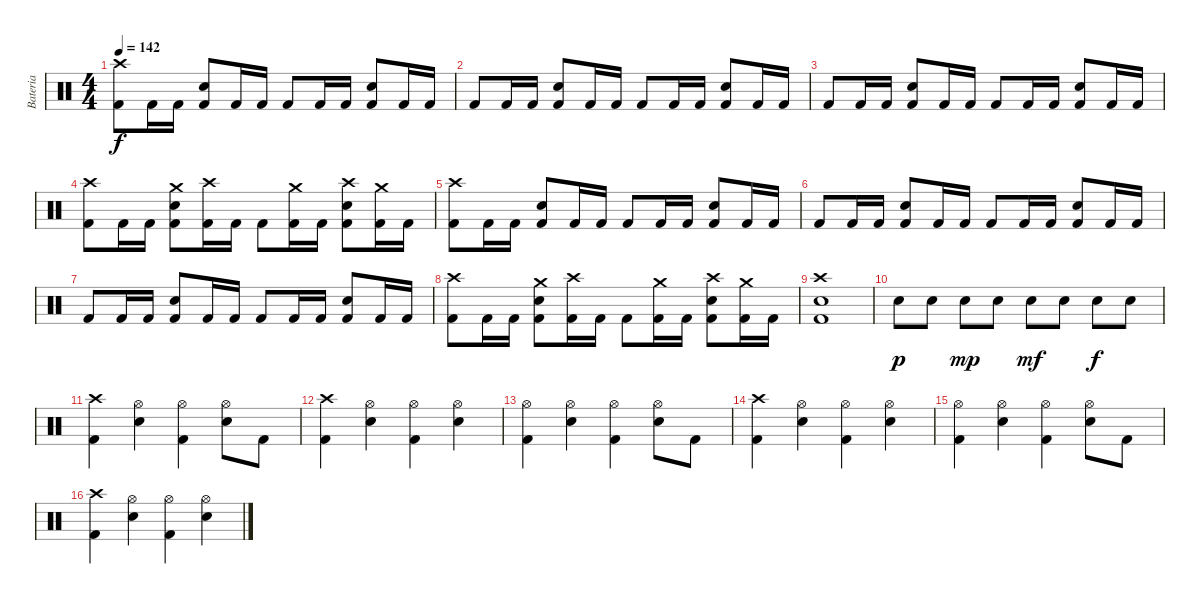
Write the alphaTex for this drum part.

\track ("Bateria" "Bateria") {instrument percussion}
\staff {score}
\articulation defaults
\ts (4 4)
\tempo 142
\clef neutral
\ks c
("Crash high (hit)" "Kick (hit) 2").8{dy f} "Kick (hit) 2".16 "Kick (hit) 2".16 ("Electric Snare (hit)" "Kick (hit) 2").8 "Kick (hit) 2".16 "Kick (hit) 2".16 "Kick (hit) 2".8 "Kick (hit) 2".16 "Kick (hit) 2".16 ("Electric Snare (hit)" "Kick (hit) 2").8 "Kick (hit) 2".16 "Kick (hit) 2".16 |
"Kick (hit) 2".8 "Kick (hit) 2".16 "Kick (hit) 2".16 ("Electric Snare (hit)" "Kick (hit) 2").8 "Kick (hit) 2".16 "Kick (hit) 2".16 "Kick (hit) 2".8 "Kick (hit) 2".16 "Kick (hit) 2".16 ("Electric Snare (hit)" "Kick (hit) 2").8 "Kick (hit) 2".16 "Kick (hit) 2".16 |
"Kick (hit) 2".8 "Kick (hit) 2".16 "Kick (hit) 2".16 ("Electric Snare (hit)" "Kick (hit) 2").8 "Kick (hit) 2".16 "Kick (hit) 2".16 "Kick (hit) 2".8 "Kick (hit) 2".16 "Kick (hit) 2".16 ("Electric Snare (hit)" "Kick (hit) 2").8 "Kick (hit) 2".16 "Kick (hit) 2".16 |
("Crash high (hit)" "Kick (hit) 2").8 "Kick (hit) 2".16 "Kick (hit) 2".16 ("Electric Snare (hit)" "Kick (hit) 2" "Crash medium (hit)").8 ("Kick (hit) 2" "Crash high (hit)").16 "Kick (hit) 2".16 "Kick (hit) 2".8 ("Kick (hit) 2" "Crash medium (hit)").16 "Kick (hit) 2".16 ("Electric Snare (hit)" "Kick (hit) 2" "Crash high (hit)").8 ("Kick (hit) 2" "Crash medium (hit)").16 "Kick (hit) 2".16 |
("Crash high (hit)" "Kick (hit) 2").8 "Kick (hit) 2".16 "Kick (hit) 2".16 ("Electric Snare (hit)" "Kick (hit) 2").8 "Kick (hit) 2".16 "Kick (hit) 2".16 "Kick (hit) 2".8 "Kick (hit) 2".16 "Kick (hit) 2".16 ("Electric Snare (hit)" "Kick (hit) 2").8 "Kick (hit) 2".16 "Kick (hit) 2".16 |
"Kick (hit) 2".8 "Kick (hit) 2".16 "Kick (hit) 2".16 ("Electric Snare (hit)" "Kick (hit) 2").8 "Kick (hit) 2".16 "Kick (hit) 2".16 "Kick (hit) 2".8 "Kick (hit) 2".16 "Kick (hit) 2".16 ("Electric Snare (hit)" "Kick (hit) 2").8 "Kick (hit) 2".16 "Kick (hit) 2".16 |
"Kick (hit) 2".8 "Kick (hit) 2".16 "Kick (hit) 2".16 ("Electric Snare (hit)" "Kick (hit) 2").8 "Kick (hit) 2".16 "Kick (hit) 2".16 "Kick (hit) 2".8 "Kick (hit) 2".16 "Kick (hit) 2".16 ("Electric Snare (hit)" "Kick (hit) 2").8 "Kick (hit) 2".16 "Kick (hit) 2".16 |
("Crash high (hit)" "Kick (hit) 2").8 "Kick (hit) 2".16 "Kick (hit) 2".16 ("Electric Snare (hit)" "Kick (hit) 2" "Crash medium (hit)").8 ("Kick (hit) 2" "Crash high (hit)").16 "Kick (hit) 2".16 "Kick (hit) 2".8 ("Kick (hit) 2" "Crash medium (hit)").16 "Kick (hit) 2".16 ("Electric Snare (hit)" "Kick (hit) 2" "Crash high (hit)").8 ("Kick (hit) 2" "Crash medium (hit)").16 "Kick (hit) 2".16 |
("Electric Snare (hit)" "Crash high (hit)" "Kick (hit) 2").1 |
"Electric Snare (hit)".8{dy p} "Electric Snare (hit)".8 "Electric Snare (hit)".8{dy mp} "Electric Snare (hit)".8 "Electric Snare (hit)".8{dy mf} "Electric Snare (hit)".8 "Electric Snare (hit)".8{dy f} "Electric Snare (hit)".8 |
("Crash high (hit)" "Kick (hit) 2").4 ("Electric Snare (hit)" "Hi-Hat (open)").4 ("Kick (hit) 2" "Hi-Hat (open)").4 ("Electric Snare (hit)" "Hi-Hat (open)").8 "Kick (hit) 2".8 |
("Crash high (hit)" "Kick (hit) 2").4 ("Electric Snare (hit)" "Hi-Hat (open)").4 ("Kick (hit) 2" "Hi-Hat (open)").4 ("Electric Snare (hit)" "Hi-Hat (open)").4 |
("Kick (hit) 2" "Hi-Hat (open)").4 ("Electric Snare (hit)" "Hi-Hat (open)").4 ("Kick (hit) 2" "Hi-Hat (open)").4 ("Electric Snare (hit)" "Hi-Hat (open)").8 "Kick (hit) 2".8 |
("Crash high (hit)" "Kick (hit) 2").4 ("Electric Snare (hit)" "Hi-Hat (open)").4 ("Kick (hit) 2" "Hi-Hat (open)").4 ("Electric Snare (hit)" "Hi-Hat (open)").4 |
("Kick (hit) 2" "Hi-Hat (open)").4 ("Electric Snare (hit)" "Hi-Hat (open)").4 ("Kick (hit) 2" "Hi-Hat (open)").4 ("Electric Snare (hit)" "Hi-Hat (open)").8 "Kick (hit) 2".8 |
("Crash high (hit)" "Kick (hit) 2").4 ("Electric Snare (hit)" "Hi-Hat (open)").4 ("Kick (hit) 2" "Hi-Hat (open)").4 ("Electric Snare (hit)" "Hi-Hat (open)").4
